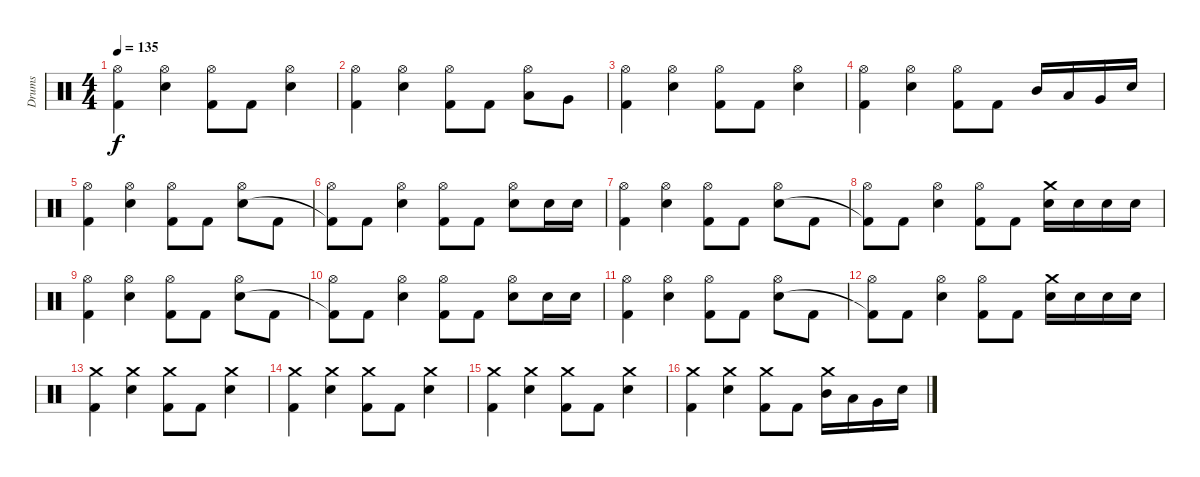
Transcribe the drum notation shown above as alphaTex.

\track ("Drums" "Drums") {instrument percussion}
\staff {score}
\articulation defaults
\ts (4 4)
\tempo 135
\clef neutral
\ks c
("Hi-Hat (open)" "Kick (hit) 2").4{dy f} ("Hi-Hat (open)" "Electric Snare (hit)").4 ("Hi-Hat (open)" "Kick (hit) 2").8 "Kick (hit) 2".8 ("Hi-Hat (open)" "Electric Snare (hit)").4 |
("Hi-Hat (open)" "Kick (hit) 2").4 ("Hi-Hat (open)" "Electric Snare (hit)").4 ("Hi-Hat (open)" "Kick (hit) 2").8 "Kick (hit) 2".8 ("Hi-Hat (open)" "Low Tom (hit)").8 "Very Low Tom (hit)".8 |
("Hi-Hat (open)" "Kick (hit) 2").4 ("Hi-Hat (open)" "Electric Snare (hit)").4 ("Hi-Hat (open)" "Kick (hit) 2").8 "Kick (hit) 2".8 ("Hi-Hat (open)" "Electric Snare (hit)").4 |
("Hi-Hat (open)" "Kick (hit) 2").4 ("Hi-Hat (open)" "Electric Snare (hit)").4 ("Hi-Hat (open)" "Kick (hit) 2").8 "Kick (hit) 2".8 "Mid Tom (hit)".16 "Low Tom (hit)".16 "Very Low Tom (hit)".16 "Electric Snare (hit)".16 |
("Hi-Hat (open)" "Kick (hit) 2").4 ("Hi-Hat (open)" "Electric Snare (hit)").4 ("Hi-Hat (open)" "Kick (hit) 2").8 "Kick (hit) 2".8 ("Hi-Hat (open)" "Electric Snare (hit)").8 "Kick (hit) 2".8 |
("Hi-Hat (open)" "Kick (hit) 2"{t}).8 "Kick (hit) 2".8 ("Hi-Hat (open)" "Electric Snare (hit)").4 ("Hi-Hat (open)" "Kick (hit) 2").8 "Kick (hit) 2".8 ("Hi-Hat (open)" "Electric Snare (hit)").8 "Electric Snare (hit)".16 "Electric Snare (hit)".16 |
("Hi-Hat (open)" "Kick (hit) 2").4 ("Hi-Hat (open)" "Electric Snare (hit)").4 ("Hi-Hat (open)" "Kick (hit) 2").8 "Kick (hit) 2".8 ("Hi-Hat (open)" "Electric Snare (hit)").8 "Kick (hit) 2".8 |
("Hi-Hat (open)" "Kick (hit) 2"{t}).8 "Kick (hit) 2".8 ("Hi-Hat (open)" "Electric Snare (hit)").4 ("Hi-Hat (open)" "Kick (hit) 2").8 "Kick (hit) 2".8 ("Crash medium (hit)" "Electric Snare (hit)").16 "Electric Snare (hit)".16 "Electric Snare (hit)".16 "Electric Snare (hit)".16 |
("Hi-Hat (open)" "Kick (hit) 2").4 ("Hi-Hat (open)" "Electric Snare (hit)").4 ("Hi-Hat (open)" "Kick (hit) 2").8 "Kick (hit) 2".8 ("Hi-Hat (open)" "Electric Snare (hit)").8 "Kick (hit) 2".8 |
("Hi-Hat (open)" "Kick (hit) 2"{t}).8 "Kick (hit) 2".8 ("Hi-Hat (open)" "Electric Snare (hit)").4 ("Hi-Hat (open)" "Kick (hit) 2").8 "Kick (hit) 2".8 ("Hi-Hat (open)" "Electric Snare (hit)").8 "Electric Snare (hit)".16 "Electric Snare (hit)".16 |
("Hi-Hat (open)" "Kick (hit) 2").4 ("Hi-Hat (open)" "Electric Snare (hit)").4 ("Hi-Hat (open)" "Kick (hit) 2").8 "Kick (hit) 2".8 ("Hi-Hat (open)" "Electric Snare (hit)").8 "Kick (hit) 2".8 |
("Hi-Hat (open)" "Kick (hit) 2"{t}).8 "Kick (hit) 2".8 ("Hi-Hat (open)" "Electric Snare (hit)").4 ("Hi-Hat (open)" "Kick (hit) 2").8 "Kick (hit) 2".8 ("Crash medium (hit)" "Electric Snare (hit)").16 "Electric Snare (hit)".16 "Electric Snare (hit)".16 "Electric Snare (hit)".16 |
("Crash medium (hit)" "Kick (hit) 2").4 ("Crash medium (hit)" "Electric Snare (hit)").4 ("Crash medium (hit)" "Kick (hit) 2").8 "Kick (hit) 2".8 ("Crash medium (hit)" "Electric Snare (hit)").4 |
("Crash medium (hit)" "Kick (hit) 2").4 ("Crash medium (hit)" "Electric Snare (hit)").4 ("Crash medium (hit)" "Kick (hit) 2").8 "Kick (hit) 2".8 ("Crash medium (hit)" "Electric Snare (hit)").4 |
("Crash medium (hit)" "Kick (hit) 2").4 ("Crash medium (hit)" "Electric Snare (hit)").4 ("Crash medium (hit)" "Kick (hit) 2").8 "Kick (hit) 2".8 ("Crash medium (hit)" "Electric Snare (hit)").4 |
("Crash medium (hit)" "Kick (hit) 2").4 ("Crash medium (hit)" "Electric Snare (hit)").4 ("Crash medium (hit)" "Kick (hit) 2").8 "Kick (hit) 2".8 ("Mid Tom (hit)" "Crash medium (hit)").16 "Low Tom (hit)".16 "Very Low Tom (hit)".16 "Electric Snare (hit)".16
